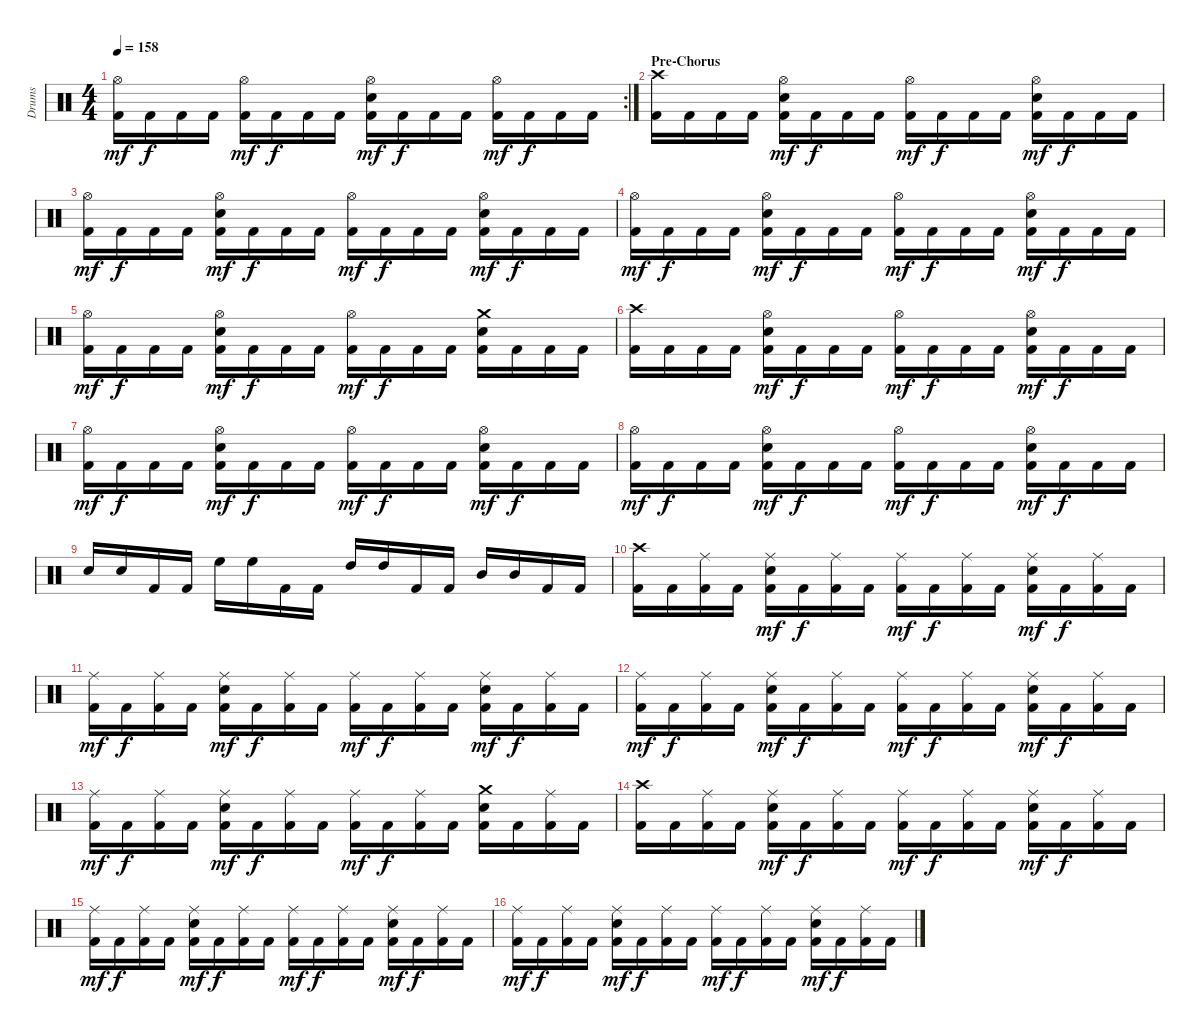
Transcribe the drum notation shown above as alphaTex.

\track ("Drums" "Drums") {instrument percussion}
\staff {score}
\articulation defaults
\rc 2
\ts (4 4)
\tempo 158
\clef neutral
\ks c
("Hi-Hat (open)" "Kick (hit) 2").16{dy mf} "Kick (hit) 2".16{dy f} "Kick (hit) 2".16 "Kick (hit) 2".16 ("Hi-Hat (open)" "Kick (hit) 2").16{dy mf} "Kick (hit) 2".16{dy f} "Kick (hit) 2".16 "Kick (hit) 2".16 ("Hi-Hat (open)" "Electric Snare (hit)" "Kick (hit) 2").16{dy mf} "Kick (hit) 2".16{dy f} "Kick (hit) 2".16 "Kick (hit) 2".16 ("Hi-Hat (open)" "Kick (hit) 2").16{dy mf} "Kick (hit) 2".16{dy f} "Kick (hit) 2".16 "Kick (hit) 2".16 |
\section ("" "Pre-Chorus")
("Crash high (hit)" "Kick (hit) 2").16 "Kick (hit) 2".16 "Kick (hit) 2".16 "Kick (hit) 2".16 ("Hi-Hat (open)" "Electric Snare (hit)" "Kick (hit) 2").16{dy mf} "Kick (hit) 2".16{dy f} "Kick (hit) 2".16 "Kick (hit) 2".16 ("Hi-Hat (open)" "Kick (hit) 2").16{dy mf} "Kick (hit) 2".16{dy f} "Kick (hit) 2".16 "Kick (hit) 2".16 ("Hi-Hat (open)" "Electric Snare (hit)" "Kick (hit) 2").16{dy mf} "Kick (hit) 2".16{dy f} "Kick (hit) 2".16 "Kick (hit) 2".16 |
("Hi-Hat (open)" "Kick (hit) 2").16{dy mf} "Kick (hit) 2".16{dy f} "Kick (hit) 2".16 "Kick (hit) 2".16 ("Hi-Hat (open)" "Electric Snare (hit)" "Kick (hit) 2").16{dy mf} "Kick (hit) 2".16{dy f} "Kick (hit) 2".16 "Kick (hit) 2".16 ("Hi-Hat (open)" "Kick (hit) 2").16{dy mf} "Kick (hit) 2".16{dy f} "Kick (hit) 2".16 "Kick (hit) 2".16 ("Hi-Hat (open)" "Electric Snare (hit)" "Kick (hit) 2").16{dy mf} "Kick (hit) 2".16{dy f} "Kick (hit) 2".16 "Kick (hit) 2".16 |
("Hi-Hat (open)" "Kick (hit) 2").16{dy mf} "Kick (hit) 2".16{dy f} "Kick (hit) 2".16 "Kick (hit) 2".16 ("Hi-Hat (open)" "Electric Snare (hit)" "Kick (hit) 2").16{dy mf} "Kick (hit) 2".16{dy f} "Kick (hit) 2".16 "Kick (hit) 2".16 ("Hi-Hat (open)" "Kick (hit) 2").16{dy mf} "Kick (hit) 2".16{dy f} "Kick (hit) 2".16 "Kick (hit) 2".16 ("Hi-Hat (open)" "Electric Snare (hit)" "Kick (hit) 2").16{dy mf} "Kick (hit) 2".16{dy f} "Kick (hit) 2".16 "Kick (hit) 2".16 |
("Hi-Hat (open)" "Kick (hit) 2").16{dy mf} "Kick (hit) 2".16{dy f} "Kick (hit) 2".16 "Kick (hit) 2".16 ("Hi-Hat (open)" "Electric Snare (hit)" "Kick (hit) 2").16{dy mf} "Kick (hit) 2".16{dy f} "Kick (hit) 2".16 "Kick (hit) 2".16 ("Hi-Hat (open)" "Kick (hit) 2").16{dy mf} "Kick (hit) 2".16{dy f} "Kick (hit) 2".16 "Kick (hit) 2".16 ("Crash medium (hit)" "Electric Snare (hit)" "Kick (hit) 2").16 "Kick (hit) 2".16 "Kick (hit) 2".16 "Kick (hit) 2".16 |
("Crash high (hit)" "Kick (hit) 2").16 "Kick (hit) 2".16 "Kick (hit) 2".16 "Kick (hit) 2".16 ("Hi-Hat (open)" "Electric Snare (hit)" "Kick (hit) 2").16{dy mf} "Kick (hit) 2".16{dy f} "Kick (hit) 2".16 "Kick (hit) 2".16 ("Hi-Hat (open)" "Kick (hit) 2").16{dy mf} "Kick (hit) 2".16{dy f} "Kick (hit) 2".16 "Kick (hit) 2".16 ("Hi-Hat (open)" "Electric Snare (hit)" "Kick (hit) 2").16{dy mf} "Kick (hit) 2".16{dy f} "Kick (hit) 2".16 "Kick (hit) 2".16 |
("Hi-Hat (open)" "Kick (hit) 2").16{dy mf} "Kick (hit) 2".16{dy f} "Kick (hit) 2".16 "Kick (hit) 2".16 ("Hi-Hat (open)" "Electric Snare (hit)" "Kick (hit) 2").16{dy mf} "Kick (hit) 2".16{dy f} "Kick (hit) 2".16 "Kick (hit) 2".16 ("Hi-Hat (open)" "Kick (hit) 2").16{dy mf} "Kick (hit) 2".16{dy f} "Kick (hit) 2".16 "Kick (hit) 2".16 ("Hi-Hat (open)" "Electric Snare (hit)" "Kick (hit) 2").16{dy mf} "Kick (hit) 2".16{dy f} "Kick (hit) 2".16 "Kick (hit) 2".16 |
("Hi-Hat (open)" "Kick (hit) 2").16{dy mf} "Kick (hit) 2".16{dy f} "Kick (hit) 2".16 "Kick (hit) 2".16 ("Hi-Hat (open)" "Electric Snare (hit)" "Kick (hit) 2").16{dy mf} "Kick (hit) 2".16{dy f} "Kick (hit) 2".16 "Kick (hit) 2".16 ("Hi-Hat (open)" "Kick (hit) 2").16{dy mf} "Kick (hit) 2".16{dy f} "Kick (hit) 2".16 "Kick (hit) 2".16 ("Hi-Hat (open)" "Electric Snare (hit)" "Kick (hit) 2").16{dy mf} "Kick (hit) 2".16{dy f} "Kick (hit) 2".16 "Kick (hit) 2".16 |
"Electric Snare (hit)".16 "Electric Snare (hit)".16 "Kick (hit) 2".16 "Kick (hit) 2".16 "High Floor Tom (hit)".16 "High Floor Tom (hit)".16 "Kick (hit) 2".16 "Kick (hit) 2".16 "High Tom (hit)".16 "High Tom (hit)".16 "Kick (hit) 2".16 "Kick (hit) 2".16 "Mid Tom (hit)".16 "Mid Tom (hit)".16 "Kick (hit) 2".16 "Kick (hit) 2".16 |
("Crash high (hit)" "Kick (hit) 2").16 "Kick (hit) 2".16 ("Ride (middle)" "Kick (hit) 2").16 "Kick (hit) 2".16 ("Ride (middle)" "Electric Snare (hit)" "Kick (hit) 2").16{dy mf} "Kick (hit) 2".16{dy f} ("Ride (middle)" "Kick (hit) 2").16 "Kick (hit) 2".16 ("Ride (middle)" "Kick (hit) 2").16{dy mf} "Kick (hit) 2".16{dy f} ("Ride (middle)" "Kick (hit) 2").16 "Kick (hit) 2".16 ("Ride (middle)" "Electric Snare (hit)" "Kick (hit) 2").16{dy mf} "Kick (hit) 2".16{dy f} ("Ride (middle)" "Kick (hit) 2").16 "Kick (hit) 2".16 |
("Ride (middle)" "Kick (hit) 2").16{dy mf} "Kick (hit) 2".16{dy f} ("Ride (middle)" "Kick (hit) 2").16 "Kick (hit) 2".16 ("Ride (middle)" "Electric Snare (hit)" "Kick (hit) 2").16{dy mf} "Kick (hit) 2".16{dy f} ("Ride (middle)" "Kick (hit) 2").16 "Kick (hit) 2".16 ("Ride (middle)" "Kick (hit) 2").16{dy mf} "Kick (hit) 2".16{dy f} ("Ride (middle)" "Kick (hit) 2").16 "Kick (hit) 2".16 ("Ride (middle)" "Electric Snare (hit)" "Kick (hit) 2").16{dy mf} "Kick (hit) 2".16{dy f} ("Ride (middle)" "Kick (hit) 2").16 "Kick (hit) 2".16 |
("Ride (middle)" "Kick (hit) 2").16{dy mf} "Kick (hit) 2".16{dy f} ("Ride (middle)" "Kick (hit) 2").16 "Kick (hit) 2".16 ("Ride (middle)" "Electric Snare (hit)" "Kick (hit) 2").16{dy mf} "Kick (hit) 2".16{dy f} ("Ride (middle)" "Kick (hit) 2").16 "Kick (hit) 2".16 ("Ride (middle)" "Kick (hit) 2").16{dy mf} "Kick (hit) 2".16{dy f} ("Ride (middle)" "Kick (hit) 2").16 "Kick (hit) 2".16 ("Ride (middle)" "Electric Snare (hit)" "Kick (hit) 2").16{dy mf} "Kick (hit) 2".16{dy f} ("Ride (middle)" "Kick (hit) 2").16 "Kick (hit) 2".16 |
("Ride (middle)" "Kick (hit) 2").16{dy mf} "Kick (hit) 2".16{dy f} ("Ride (middle)" "Kick (hit) 2").16 "Kick (hit) 2".16 ("Ride (middle)" "Electric Snare (hit)" "Kick (hit) 2").16{dy mf} "Kick (hit) 2".16{dy f} ("Ride (middle)" "Kick (hit) 2").16 "Kick (hit) 2".16 ("Ride (middle)" "Kick (hit) 2").16{dy mf} "Kick (hit) 2".16{dy f} ("Ride (middle)" "Kick (hit) 2").16 "Kick (hit) 2".16 ("Crash medium (hit)" "Electric Snare (hit)" "Kick (hit) 2").16 "Kick (hit) 2".16 ("Ride (middle)" "Kick (hit) 2").16 "Kick (hit) 2".16 |
("Crash high (hit)" "Kick (hit) 2").16 "Kick (hit) 2".16 ("Ride (middle)" "Kick (hit) 2").16 "Kick (hit) 2".16 ("Ride (middle)" "Electric Snare (hit)" "Kick (hit) 2").16{dy mf} "Kick (hit) 2".16{dy f} ("Ride (middle)" "Kick (hit) 2").16 "Kick (hit) 2".16 ("Ride (middle)" "Kick (hit) 2").16{dy mf} "Kick (hit) 2".16{dy f} ("Ride (middle)" "Kick (hit) 2").16 "Kick (hit) 2".16 ("Ride (middle)" "Electric Snare (hit)" "Kick (hit) 2").16{dy mf} "Kick (hit) 2".16{dy f} ("Ride (middle)" "Kick (hit) 2").16 "Kick (hit) 2".16 |
("Ride (middle)" "Kick (hit) 2").16{dy mf} "Kick (hit) 2".16{dy f} ("Ride (middle)" "Kick (hit) 2").16 "Kick (hit) 2".16 ("Ride (middle)" "Electric Snare (hit)" "Kick (hit) 2").16{dy mf} "Kick (hit) 2".16{dy f} ("Ride (middle)" "Kick (hit) 2").16 "Kick (hit) 2".16 ("Ride (middle)" "Kick (hit) 2").16{dy mf} "Kick (hit) 2".16{dy f} ("Ride (middle)" "Kick (hit) 2").16 "Kick (hit) 2".16 ("Ride (middle)" "Electric Snare (hit)" "Kick (hit) 2").16{dy mf} "Kick (hit) 2".16{dy f} ("Ride (middle)" "Kick (hit) 2").16 "Kick (hit) 2".16 |
("Ride (middle)" "Kick (hit) 2").16{dy mf} "Kick (hit) 2".16{dy f} ("Ride (middle)" "Kick (hit) 2").16 "Kick (hit) 2".16 ("Ride (middle)" "Electric Snare (hit)" "Kick (hit) 2").16{dy mf} "Kick (hit) 2".16{dy f} ("Ride (middle)" "Kick (hit) 2").16 "Kick (hit) 2".16 ("Ride (middle)" "Kick (hit) 2").16{dy mf} "Kick (hit) 2".16{dy f} ("Ride (middle)" "Kick (hit) 2").16 "Kick (hit) 2".16 ("Ride (middle)" "Electric Snare (hit)" "Kick (hit) 2").16{dy mf} "Kick (hit) 2".16{dy f} ("Ride (middle)" "Kick (hit) 2").16 "Kick (hit) 2".16
